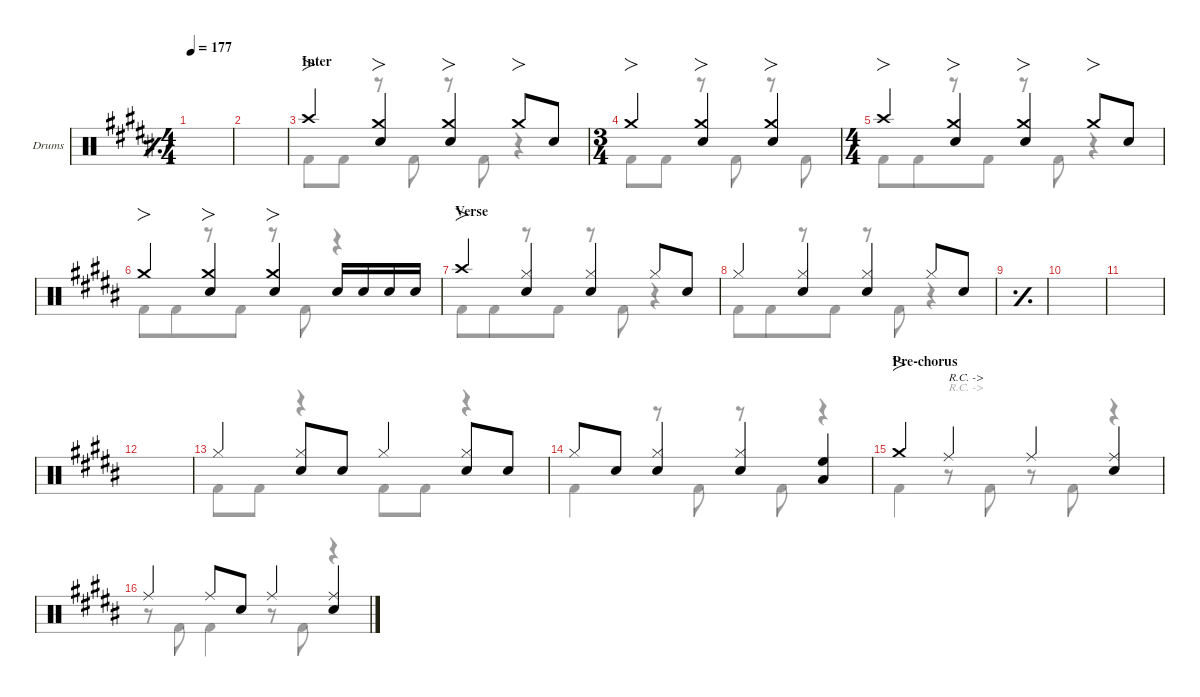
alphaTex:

\defaultSystemsLayout 4
\hideDynamics
\bracketExtendMode nobrackets
\firstSystemTrackNameOrientation horizontal
\track ("Drums" "Drums") {defaultSystemsLayout 4 instrument percussion}
\staff {score}
\articulation defaults
\voice
\ts (4 4)
\tempo 177
\clef neutral
\simile simple
\scale
0.244697
\ks g#minor
|
\scale
0.244697 |
\section ("" "Inter")
\simile none
\scale
0.265908 "Crash high (hit)"{acc forcenatural}.4{fo beam Up} ("Crash medium (hit)"{acc forcenatural} "Snare (hit) 2"{acc forcenatural}).4{fo beam Up} ("Crash medium (hit)"{acc forcenatural} "Snare (hit) 2"{acc forcenatural}).4{fo beam Up} "Crash medium (hit)"{acc forcenatural}.8{fo beam Up} "Snare (hit) 2"{acc forcenatural}.8{beam Up} |
\ts (3 4)
\beaming (8 2 2 2)
\scale
0.244697 "Crash medium (hit)"{acc forcenatural}.4{fo beam Up} ("Crash medium (hit)"{acc forcenatural} "Snare (hit) 2"{acc forcenatural}).4{fo beam Up} ("Crash medium (hit)"{acc forcenatural} "Snare (hit) 2"{acc forcenatural}).4{fo beam Up} |
\ts (4 4)
\beaming (8 4 4)
\scale
0.244697 "Crash high (hit)"{acc forcenatural}.4{fo beam Up} ("Crash medium (hit)"{acc forcenatural} "Snare (hit) 2"{acc forcenatural}).4{fo beam Up} ("Crash medium (hit)"{acc forcenatural} "Snare (hit) 2"{acc forcenatural}).4{fo beam Up} "Crash medium (hit)"{acc forcenatural}.8{fo beam Up} "Snare (hit) 2"{acc forcenatural}.8{beam Up} |
\scale
0.244698 "Crash medium (hit)"{acc forcenatural}.4{fo beam Up} ("Crash medium (hit)"{acc forcenatural} "Snare (hit) 2"{acc forcenatural}).4{fo beam Up} ("Crash medium (hit)"{acc forcenatural} "Snare (hit) 2"{acc forcenatural}).4{fo beam Up} "Snare (hit) 2"{acc forcenatural}.16{beam Up} "Snare (hit) 2"{acc forcenatural}.16{dy mf beam Up} "Snare (hit) 2"{acc forcenatural}.16{dy f beam Up} "Snare (hit) 2"{acc forcenatural}.16{dy mf beam Up} |
\section ("" "Verse")
\scale
0.265908 "Crash high (hit)"{acc forcenatural}.4{fo dy f beam Up} ("Hi-Hat (closed)"{acc forcenatural} "Snare (hit) 2"{acc forcenatural}).4{beam Up} ("Hi-Hat (closed)"{acc forcenatural} "Snare (hit) 2"{acc forcenatural}).4{beam Up} "Hi-Hat (closed)"{acc forcenatural}.8{beam Up} "Snare (hit) 2"{acc forcenatural}.8{beam Up} |
\scale
0.244697 "Hi-Hat (closed)"{acc forcenatural}.4{beam Up} ("Hi-Hat (closed)"{acc forcenatural} "Snare (hit) 2"{acc forcenatural}).4{beam Up} ("Hi-Hat (closed)"{acc forcenatural} "Snare (hit) 2"{acc forcenatural}).4{beam Up} "Hi-Hat (closed)"{acc forcenatural}.8{beam Up} "Snare (hit) 2"{acc forcenatural}.8{beam Up} |
\simile simple
\scale
0.244697 |
\scale
0.244697 |
\scale
0.265908 |
\scale
0.244697 |
\simile none
\scale
0.244697 "Hi-Hat (closed)"{acc forcenatural}.4{beam Up} ("Hi-Hat (closed)"{acc forcenatural} "Snare (hit) 2"{acc forcenatural}).8{beam Up} "Snare (hit) 2"{acc forcenatural}.8{beam Up} "Hi-Hat (closed)"{acc forcenatural}.4{beam Up} ("Hi-Hat (closed)"{acc forcenatural} "Snare (hit) 2"{acc forcenatural}).8{beam Up} "Snare (hit) 2"{acc forcenatural}.8{beam Up} |
\scale
0.244697 "Hi-Hat (closed)"{acc forcenatural}.8{beam Up} "Snare (hit) 2"{acc forcenatural}.8{beam Up} ("Snare (hit) 2"{acc forcenatural} "Hi-Hat (closed)"{acc forcenatural}).4{beam Up} ("Snare (hit) 2"{acc forcenatural} "Hi-Hat (closed)"{acc forcenatural}).4{beam Up} ("High Floor Tom (hit)"{acc forcenatural} "Low Tom (hit)"{acc forcenatural}).4{beam Up} |
\section ("" "Pre-chorus")
\scale
0.265513 "Crash medium (hit)"{acc forcenatural}.4{fo beam Up} "Ride (middle)"{acc forcenatural}.4{txt "R.C. ->" beam Up} "Ride (middle)"{acc forcenatural}.4{beam Up} ("Ride (middle)"{acc forcenatural} "Snare (hit) 2"{acc forcenatural}).4{beam Up} |
\scale
0.245092 "Ride (middle)"{acc forcenatural}.4{beam Up} "Ride (middle)"{acc forcenatural}.8{beam Up} "Snare (hit) 2"{acc forcenatural}.8{beam Up} "Ride (middle)"{acc forcenatural}.4{beam Up} ("Ride (middle)"{acc forcenatural} "Snare (hit) 2"{acc forcenatural}).4{beam Up}
\voice
\clef neutral
\ottava regular
\simile simple
\scale
0.244697
\ks g#minor
|
\scale
0.244697 |
\simile none
\scale
0.265908 "Kick (hit) 2"{acc forcenatural}.8{beam Down} "Kick (hit) 2"{acc forcenatural}.8{beam Down} r.8{beam Down} "Kick (hit) 2"{acc forcenatural}.8{beam Down} r.8{beam Down} "Kick (hit) 2"{acc forcenatural}.8{beam Down} r.4{beam Down} |
\scale
0.244697 "Kick (hit) 2"{acc forcenatural}.8{beam Down} "Kick (hit) 2"{acc forcenatural}.8{beam Down} r.8{beam Down} "Kick (hit) 2"{acc forcenatural}.8{beam Down} r.8{beam Down} "Kick (hit) 2"{acc forcenatural}.8{beam Down} |
\scale
0.244697 "Kick (hit) 2"{acc forcenatural}.8{beam Down} "Kick (hit) 2"{acc forcenatural}.8{beam Down} r.8{beam Down} "Kick (hit) 2"{acc forcenatural}.8{beam Down} r.8{beam Down} "Kick (hit) 2"{acc forcenatural}.8{beam Down} r.4{beam Down} |
\scale
0.244698 "Kick (hit) 2"{acc forcenatural}.8{beam Down} "Kick (hit) 2"{acc forcenatural}.8{beam Down} r.8{beam Down} "Kick (hit) 2"{acc forcenatural}.8{beam Down} r.8{beam Down} "Kick (hit) 2"{acc forcenatural}.8{beam Down} r.4{beam Down} |
\scale
0.265908 "Kick (hit) 2"{acc forcenatural}.8{beam Down} "Kick (hit) 2"{acc forcenatural}.8{beam Down} r.8{beam Down} "Kick (hit) 2"{acc forcenatural}.8{beam Down} r.8{beam Down} "Kick (hit) 2"{acc forcenatural}.8{beam Down} r.4{beam Down} |
\scale
0.244697 "Kick (hit) 2"{acc forcenatural}.8{beam Down} "Kick (hit) 2"{acc forcenatural}.8{beam Down} r.8{beam Down} "Kick (hit) 2"{acc forcenatural}.8{beam Down} r.8{beam Down} "Kick (hit) 2"{acc forcenatural}.8{beam Down} r.4{beam Down} |
\simile simple
\scale
0.244697 |
\scale
0.244697 |
\scale
0.265908 |
\scale
0.244697 |
\simile none
\scale
0.244697 "Kick (hit) 2"{acc forcenatural}.8{beam Down} "Kick (hit) 2"{acc forcenatural}.8{beam Down} r.4{beam Down} "Kick (hit) 2"{acc forcenatural}.8{beam Down} "Kick (hit) 2"{acc forcenatural}.8{beam Down} r.4{beam Down} |
\scale
0.244697 "Kick (hit) 2"{acc forcenatural}.4{beam Down} r.8{beam Down} "Kick (hit) 2"{acc forcenatural}.8{beam Down} r.8{beam Down} "Kick (hit) 2"{acc forcenatural}.8{beam Down} r.4{beam Down} |
\scale
0.265513 "Kick (hit) 2"{acc forcenatural}.4{beam Down} r.8{txt "R.C. ->" beam Down} "Kick (hit) 2"{acc forcenatural}.8{beam Down} r.8{beam Down} "Kick (hit) 2"{acc forcenatural}.8{beam Down} r.4{beam Down} |
\scale
0.245092 r.8{beam Down} "Kick (hit) 2"{acc forcenatural}.8{beam Down} "Kick (hit) 2"{acc forcenatural}.4{beam Down} r.8{beam Down} "Kick (hit) 2"{acc forcenatural}.8{beam Down} r.4{beam Down}
